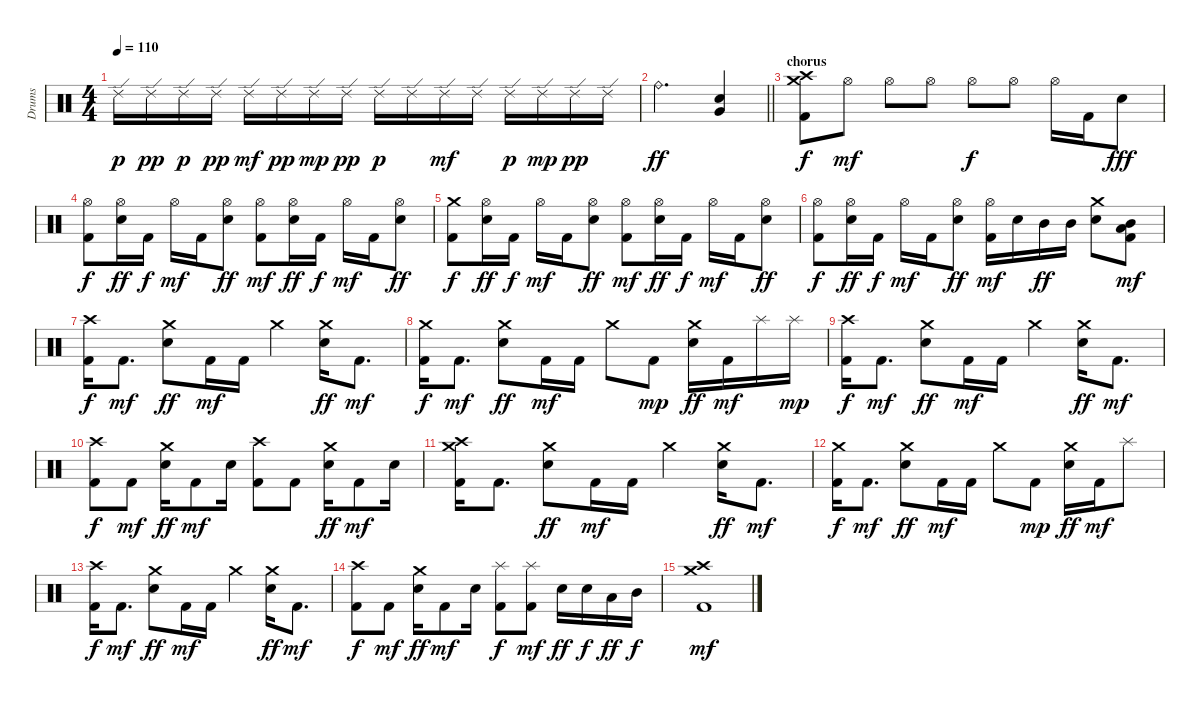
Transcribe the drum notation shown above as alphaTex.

\track ("Drums" "Drums") {instrument percussion}
\staff {score}
\articulation defaults
\ts (4 4)
\tempo 110
\clef neutral
\ks c "Ride (edge) 2".16{dy p} "Ride (edge) 2".16{dy pp} "Ride (edge) 2".16{dy p} "Ride (edge) 2".16{dy pp} "Ride (edge) 2".16{dy mf} "Ride (edge) 2".16{dy pp} "Ride (edge) 2".16{dy mp} "Ride (edge) 2".16{dy pp} "Ride (edge) 2".16{dy p} "Ride (edge) 2".16 "Ride (edge) 2".16{dy mf} "Ride (edge) 2".16 "Ride (edge) 2".16{dy p} "Ride (edge) 2".16{dy mp} "Ride (edge) 2".16{dy pp} "Ride (edge) 2".16
|
\barLineRight lightlight "Ride (bell)".2{d dy ff}
("Very Low Tom (hit)" "Snare (hit) 2").4 |
\section ("" "chorus")
("Crash medium (hit)" "Crash high (hit)" "Kick (hit) 2").8{dy f} "Hi-Hat (open)".8{dy mf} "Hi-Hat (open)".8 "Hi-Hat (open)".8 "Hi-Hat (open)".8{dy f} "Hi-Hat (open)".8 "Hi-Hat (open)".16 "Kick (hit) 2".16 "Snare (hit) 2".8{dy fff} |
("Hi-Hat (open)" "Kick (hit) 2").8{dy f} ("Hi-Hat (open)" "Snare (hit) 2").16{dy ff} "Kick (hit) 2".16{dy f} "Hi-Hat (open)".16{dy mf} "Kick (hit) 2".16 ("Hi-Hat (open)" "Snare (hit) 2").8{dy ff} ("Hi-Hat (open)" "Kick (hit) 2").8{dy mf} ("Hi-Hat (open)" "Snare (hit) 2").16{dy ff} "Kick (hit) 2".16{dy f} "Hi-Hat (open)".16{dy mf} "Kick (hit) 2".16 ("Hi-Hat (open)" "Snare (hit) 2").8{dy ff} |
("Crash medium (hit)" "Kick (hit) 2").8{dy f} ("Hi-Hat (open)" "Snare (hit) 2").16{dy ff} "Kick (hit) 2".16{dy f} "Hi-Hat (open)".16{dy mf} "Kick (hit) 2".16 ("Hi-Hat (open)" "Snare (hit) 2").8{dy ff} ("Hi-Hat (open)" "Kick (hit) 2").8{dy mf} ("Hi-Hat (open)" "Snare (hit) 2").16{dy ff} "Kick (hit) 2".16{dy f} "Hi-Hat (open)".16{dy mf} "Kick (hit) 2".16 ("Hi-Hat (open)" "Snare (hit) 2").8{dy ff} |
("Hi-Hat (open)" "Kick (hit) 2").8{dy f} ("Hi-Hat (open)" "Snare (hit) 2").16{dy ff} "Kick (hit) 2".16{dy f} "Hi-Hat (open)".16{dy mf} "Kick (hit) 2".16 ("Hi-Hat (open)" "Snare (hit) 2").8{dy ff} ("Hi-Hat (open)" "Kick (hit) 2").16{dy mf} "Snare (hit) 2".16 "Mid Tom (hit)".16{dy ff} "Mid Tom (hit)".16 ("Crash medium (hit)" "Snare (hit) 2").8 ("Low Tom (hit)" "Mid Tom (hit)" "Kick (hit) 2").8{dy mf} |
("Crash high (hit)" "Kick (hit) 2").16{dy f} "Kick (hit) 2".8{d dy mf} ("Crash medium (hit)" "Snare (hit) 2").8{dy ff} "Kick (hit) 2".16{dy mf} "Kick (hit) 2".16 "Crash medium (hit)".4 ("Crash medium (hit)" "Snare (hit) 2").16{dy ff} "Kick (hit) 2".8{d dy mf} |
("Crash medium (hit)" "Kick (hit) 2").16{dy f} "Kick (hit) 2".8{d dy mf} ("Crash medium (hit)" "Snare (hit) 2").8{dy ff} "Kick (hit) 2".16{dy mf} "Kick (hit) 2".16 "Crash medium (hit)".8 "Kick (hit) 2".8{dy mp} ("Crash medium (hit)" "Snare (hit) 2").16{dy ff} "Kick (hit) 2".16{dy mf} "Splash (hit)".16 "Splash (hit)".16{dy mp} |
("Crash high (hit)" "Kick (hit) 2").16{dy f} "Kick (hit) 2".8{d dy mf} ("Crash medium (hit)" "Snare (hit) 2").8{dy ff} "Kick (hit) 2".16{dy mf} "Kick (hit) 2".16 "Crash medium (hit)".4 ("Crash medium (hit)" "Snare (hit) 2").16{dy ff} "Kick (hit) 2".8{d dy mf} |
("Crash high (hit)" "Kick (hit) 2").8{dy f} "Kick (hit) 2".8{dy mf} ("Crash medium (hit)" "Snare (hit) 2").16{dy ff} "Kick (hit) 2".8{dy mf} "Snare (hit) 2".16 ("Crash high (hit)" "Kick (hit) 2").8 "Kick (hit) 2".8 ("Crash medium (hit)" "Snare (hit) 2").16{dy ff} "Kick (hit) 2".8{dy mf} "Snare (hit) 2".16 |
("Crash medium (hit)" "Crash high (hit)" "Kick (hit) 2").16 "Kick (hit) 2".8{d} ("Crash medium (hit)" "Snare (hit) 2").8{dy ff} "Kick (hit) 2".16{dy mf} "Kick (hit) 2".16 "Crash medium (hit)".4 ("Crash medium (hit)" "Snare (hit) 2").16{dy ff} "Kick (hit) 2".8{d dy mf} |
("Crash medium (hit)" "Kick (hit) 2").16{dy f} "Kick (hit) 2".8{d dy mf} ("Crash medium (hit)" "Snare (hit) 2").8{dy ff} "Kick (hit) 2".16{dy mf} "Kick (hit) 2".16 "Crash medium (hit)".8 "Kick (hit) 2".8{dy mp} ("Crash medium (hit)" "Snare (hit) 2").16{dy ff} "Kick (hit) 2".16{dy mf} "Splash (hit)".8 |
("Crash high (hit)" "Kick (hit) 2").16{dy f} "Kick (hit) 2".8{d dy mf} ("Crash medium (hit)" "Snare (hit) 2").8{dy ff} "Kick (hit) 2".16{dy mf} "Kick (hit) 2".16 "Crash medium (hit)".4 ("Crash medium (hit)" "Snare (hit) 2").16{dy ff} "Kick (hit) 2".8{d dy mf} |
("Crash high (hit)" "Kick (hit) 2").8{dy f} "Kick (hit) 2".8{dy mf} ("Crash medium (hit)" "Snare (hit) 2").16{dy ff} "Kick (hit) 2".8{dy mf} "Snare (hit) 2".16 ("Splash (hit)" "Kick (hit) 2").8{dy f} ("Splash (hit)" "Kick (hit) 2").8{dy mf} "Snare (hit) 2".16{dy ff} "Snare (hit) 2".16{dy f} "Low Tom (hit)".16{dy ff} "Mid Tom (hit)".16{dy f} |
("Crash medium (hit)" "Crash high (hit)" "Kick (hit) 2").1{dy mf}
